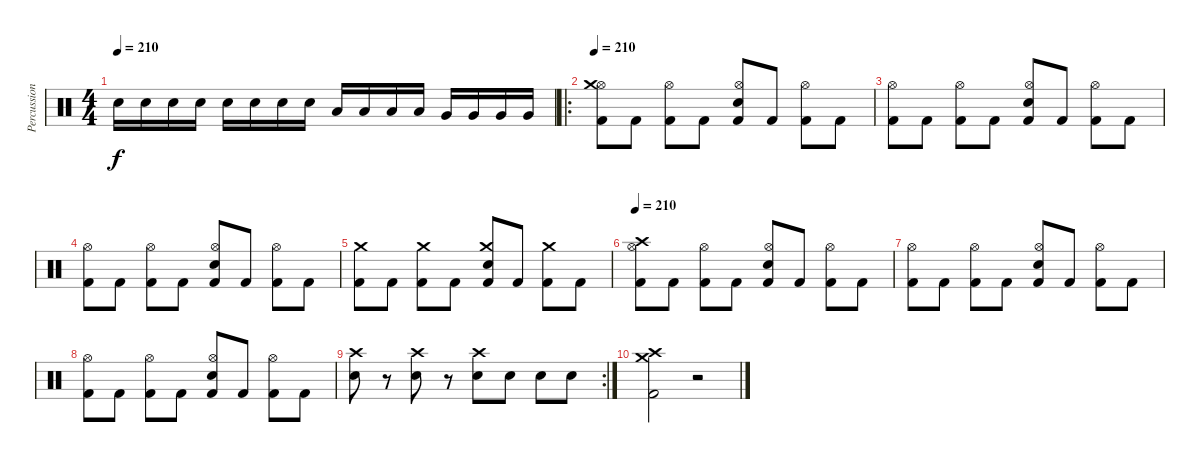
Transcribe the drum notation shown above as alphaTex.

\track ("Percussion" "Percussion") {instrument percussion}
\staff {score}
\articulation defaults
\ts (4 4)
\tempo 210
\clef neutral
\ks c "Electric Snare (hit)".16{dy f} "Electric Snare (hit)".16 "Electric Snare (hit)".16 "Electric Snare (hit)".16 "Electric Snare (hit)".16 "Electric Snare (hit)".16 "Electric Snare (hit)".16 "Electric Snare (hit)".16 "Low Tom (hit)".16 "Low Tom (hit)".16 "Low Tom (hit)".16 "Low Tom (hit)".16 "Very Low Tom (hit)".16 "Very Low Tom (hit)".16 "Very Low Tom (hit)".16 "Very Low Tom (hit)".16
|
\ro
\tempo 210
("Hi-Hat (open)" "Crash medium (hit)" "Kick (hit) 2").8 "Kick (hit) 2".8 ("Hi-Hat (open)" "Kick (hit) 2").8 "Kick (hit) 2".8 ("Hi-Hat (open)" "Electric Snare (hit)" "Kick (hit) 2").8 "Kick (hit) 2".8 ("Hi-Hat (open)" "Kick (hit) 2").8 "Kick (hit) 2".8 |
("Hi-Hat (open)" "Kick (hit) 2").8 "Kick (hit) 2".8 ("Hi-Hat (open)" "Kick (hit) 2").8 "Kick (hit) 2".8 ("Hi-Hat (open)" "Electric Snare (hit)" "Kick (hit) 2").8 "Kick (hit) 2".8 ("Hi-Hat (open)" "Kick (hit) 2").8 "Kick (hit) 2".8 |
("Hi-Hat (open)" "Kick (hit) 2").8 "Kick (hit) 2".8 ("Hi-Hat (open)" "Kick (hit) 2").8 "Kick (hit) 2".8 ("Hi-Hat (open)" "Electric Snare (hit)" "Kick (hit) 2").8 "Kick (hit) 2".8 ("Hi-Hat (open)" "Kick (hit) 2").8 "Kick (hit) 2".8 |
("Crash medium (hit)" "Kick (hit) 2").8 "Kick (hit) 2".8 ("Crash medium (hit)" "Kick (hit) 2").8 "Kick (hit) 2".8 ("Crash medium (hit)" "Electric Snare (hit)" "Kick (hit) 2").8 "Kick (hit) 2".8 ("Crash medium (hit)" "Kick (hit) 2").8 "Kick (hit) 2".8 |
\tempo 210
("Hi-Hat (open)" "Crash high (hit)" "Kick (hit) 2").8 "Kick (hit) 2".8 ("Hi-Hat (open)" "Kick (hit) 2").8 "Kick (hit) 2".8 ("Hi-Hat (open)" "Electric Snare (hit)" "Kick (hit) 2").8 "Kick (hit) 2".8 ("Hi-Hat (open)" "Kick (hit) 2").8 "Kick (hit) 2".8 |
("Hi-Hat (open)" "Kick (hit) 2").8 "Kick (hit) 2".8 ("Hi-Hat (open)" "Kick (hit) 2").8 "Kick (hit) 2".8 ("Hi-Hat (open)" "Electric Snare (hit)" "Kick (hit) 2").8 "Kick (hit) 2".8 ("Hi-Hat (open)" "Kick (hit) 2").8 "Kick (hit) 2".8 |
("Hi-Hat (open)" "Kick (hit) 2").8 "Kick (hit) 2".8 ("Hi-Hat (open)" "Kick (hit) 2").8 "Kick (hit) 2".8 ("Hi-Hat (open)" "Electric Snare (hit)" "Kick (hit) 2").8 "Kick (hit) 2".8 ("Hi-Hat (open)" "Kick (hit) 2").8 "Kick (hit) 2".8 |
\rc 2
("Crash high (hit)" "Electric Snare (hit)").8 r.8 ("Crash high (hit)" "Electric Snare (hit)").8 r.8 ("Crash high (hit)" "Electric Snare (hit)").8 "Electric Snare (hit)".8 "Electric Snare (hit)".8 "Electric Snare (hit)".8 |
("Crash high (hit)" "Crash medium (hit)" "Kick (hit) 2").2 r.2
